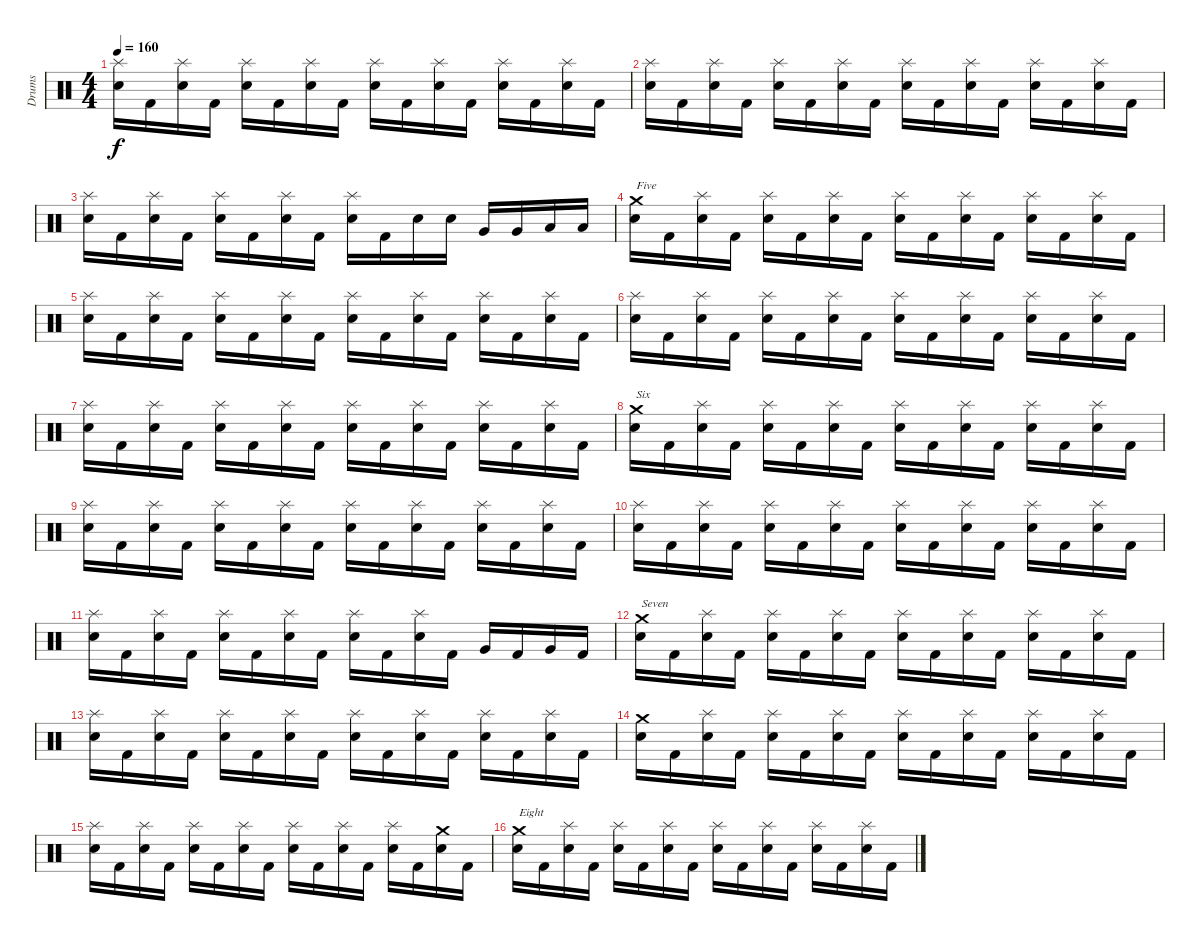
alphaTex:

\track ("Drums" "Drums") {instrument percussion}
\staff {score}
\articulation defaults
\ts (4 4)
\tempo 160
\clef neutral
\ks c
("Splash (hit)" "Snare (hit) 2").16{dy f} "Kick (hit) 2".16 ("Splash (hit)" "Snare (hit) 2").16 "Kick (hit) 2".16 ("Splash (hit)" "Snare (hit) 2").16 "Kick (hit) 2".16 ("Splash (hit)" "Snare (hit) 2").16 "Kick (hit) 2".16 ("Splash (hit)" "Snare (hit) 2").16 "Kick (hit) 2".16 ("Splash (hit)" "Snare (hit) 2").16 "Kick (hit) 2".16 ("Splash (hit)" "Snare (hit) 2").16 "Kick (hit) 2".16 ("Splash (hit)" "Snare (hit) 2").16 "Kick (hit) 2".16 |
("Splash (hit)" "Snare (hit) 2").16 "Kick (hit) 2".16 ("Splash (hit)" "Snare (hit) 2").16 "Kick (hit) 2".16 ("Splash (hit)" "Snare (hit) 2").16 "Kick (hit) 2".16 ("Splash (hit)" "Snare (hit) 2").16 "Kick (hit) 2".16 ("Splash (hit)" "Snare (hit) 2").16 "Kick (hit) 2".16 ("Splash (hit)" "Snare (hit) 2").16 "Kick (hit) 2".16 ("Splash (hit)" "Snare (hit) 2").16 "Kick (hit) 2".16 ("Splash (hit)" "Snare (hit) 2").16 "Kick (hit) 2".16 |
("Splash (hit)" "Snare (hit) 2").16 "Kick (hit) 2".16 ("Splash (hit)" "Snare (hit) 2").16 "Kick (hit) 2".16 ("Splash (hit)" "Snare (hit) 2").16 "Kick (hit) 2".16 ("Splash (hit)" "Snare (hit) 2").16 "Kick (hit) 2".16 ("Splash (hit)" "Snare (hit) 2").16 "Kick (hit) 2".16 "Snare (hit) 2".16 "Snare (hit) 2".16 "Very Low Tom (hit)".16 "Very Low Tom (hit)".16 "Low Floor Tom (hit)".16 "Low Floor Tom (hit)".16 |
("Crash medium (hit)" "Snare (hit) 2").16{txt "Five"} "Kick (hit) 2".16 ("Splash (hit)" "Snare (hit) 2").16 "Kick (hit) 2".16 ("Splash (hit)" "Snare (hit) 2").16 "Kick (hit) 2".16 ("Splash (hit)" "Snare (hit) 2").16 "Kick (hit) 2".16 ("Splash (hit)" "Snare (hit) 2").16 "Kick (hit) 2".16 ("Splash (hit)" "Snare (hit) 2").16 "Kick (hit) 2".16 ("Splash (hit)" "Snare (hit) 2").16 "Kick (hit) 2".16 ("Splash (hit)" "Snare (hit) 2").16 "Kick (hit) 2".16 |
("Splash (hit)" "Snare (hit) 2").16 "Kick (hit) 2".16 ("Splash (hit)" "Snare (hit) 2").16 "Kick (hit) 2".16 ("Splash (hit)" "Snare (hit) 2").16 "Kick (hit) 2".16 ("Splash (hit)" "Snare (hit) 2").16 "Kick (hit) 2".16 ("Splash (hit)" "Snare (hit) 2").16 "Kick (hit) 2".16 ("Splash (hit)" "Snare (hit) 2").16 "Kick (hit) 2".16 ("Splash (hit)" "Snare (hit) 2").16 "Kick (hit) 2".16 ("Splash (hit)" "Snare (hit) 2").16 "Kick (hit) 2".16 |
("Splash (hit)" "Snare (hit) 2").16 "Kick (hit) 2".16 ("Splash (hit)" "Snare (hit) 2").16 "Kick (hit) 2".16 ("Splash (hit)" "Snare (hit) 2").16 "Kick (hit) 2".16 ("Splash (hit)" "Snare (hit) 2").16 "Kick (hit) 2".16 ("Splash (hit)" "Snare (hit) 2").16 "Kick (hit) 2".16 ("Splash (hit)" "Snare (hit) 2").16 "Kick (hit) 2".16 ("Splash (hit)" "Snare (hit) 2").16 "Kick (hit) 2".16 ("Splash (hit)" "Snare (hit) 2").16 "Kick (hit) 2".16 |
("Splash (hit)" "Snare (hit) 2").16 "Kick (hit) 2".16 ("Splash (hit)" "Snare (hit) 2").16 "Kick (hit) 2".16 ("Splash (hit)" "Snare (hit) 2").16 "Kick (hit) 2".16 ("Splash (hit)" "Snare (hit) 2").16 "Kick (hit) 2".16 ("Splash (hit)" "Snare (hit) 2").16 "Kick (hit) 2".16 ("Splash (hit)" "Snare (hit) 2").16 "Kick (hit) 2".16 ("Splash (hit)" "Snare (hit) 2").16 "Kick (hit) 2".16 ("Splash (hit)" "Snare (hit) 2").16 "Kick (hit) 2".16 |
("Crash medium (hit)" "Snare (hit) 2").16{txt "Six"} "Kick (hit) 2".16 ("Splash (hit)" "Snare (hit) 2").16 "Kick (hit) 2".16 ("Splash (hit)" "Snare (hit) 2").16 "Kick (hit) 2".16 ("Splash (hit)" "Snare (hit) 2").16 "Kick (hit) 2".16 ("Splash (hit)" "Snare (hit) 2").16 "Kick (hit) 2".16 ("Splash (hit)" "Snare (hit) 2").16 "Kick (hit) 2".16 ("Splash (hit)" "Snare (hit) 2").16 "Kick (hit) 2".16 ("Splash (hit)" "Snare (hit) 2").16 "Kick (hit) 2".16 |
("Splash (hit)" "Snare (hit) 2").16 "Kick (hit) 2".16 ("Splash (hit)" "Snare (hit) 2").16 "Kick (hit) 2".16 ("Splash (hit)" "Snare (hit) 2").16 "Kick (hit) 2".16 ("Splash (hit)" "Snare (hit) 2").16 "Kick (hit) 2".16 ("Splash (hit)" "Snare (hit) 2").16 "Kick (hit) 2".16 ("Splash (hit)" "Snare (hit) 2").16 "Kick (hit) 2".16 ("Splash (hit)" "Snare (hit) 2").16 "Kick (hit) 2".16 ("Splash (hit)" "Snare (hit) 2").16 "Kick (hit) 2".16 |
("Splash (hit)" "Snare (hit) 2").16 "Kick (hit) 2".16 ("Splash (hit)" "Snare (hit) 2").16 "Kick (hit) 2".16 ("Splash (hit)" "Snare (hit) 2").16 "Kick (hit) 2".16 ("Splash (hit)" "Snare (hit) 2").16 "Kick (hit) 2".16 ("Splash (hit)" "Snare (hit) 2").16 "Kick (hit) 2".16 ("Splash (hit)" "Snare (hit) 2").16 "Kick (hit) 2".16 ("Splash (hit)" "Snare (hit) 2").16 "Kick (hit) 2".16 ("Splash (hit)" "Snare (hit) 2").16 "Kick (hit) 2".16 |
("Splash (hit)" "Snare (hit) 2").16 "Kick (hit) 2".16 ("Splash (hit)" "Snare (hit) 2").16 "Kick (hit) 2".16 ("Splash (hit)" "Snare (hit) 2").16 "Kick (hit) 2".16 ("Splash (hit)" "Snare (hit) 2").16 "Kick (hit) 2".16 ("Splash (hit)" "Snare (hit) 2").16 "Kick (hit) 2".16 ("Splash (hit)" "Snare (hit) 2").16 "Kick (hit) 2".16 "Very Low Tom (hit)".16 "Kick (hit) 2".16 "Very Low Tom (hit)".16 "Kick (hit) 2".16 |
("Crash medium (hit)" "Snare (hit) 2").16{txt "Seven"} "Kick (hit) 2".16 ("Splash (hit)" "Snare (hit) 2").16 "Kick (hit) 2".16 ("Splash (hit)" "Snare (hit) 2").16 "Kick (hit) 2".16 ("Splash (hit)" "Snare (hit) 2").16 "Kick (hit) 2".16 ("Splash (hit)" "Snare (hit) 2").16 "Kick (hit) 2".16 ("Splash (hit)" "Snare (hit) 2").16 "Kick (hit) 2".16 ("Splash (hit)" "Snare (hit) 2").16 "Kick (hit) 2".16 ("Splash (hit)" "Snare (hit) 2").16 "Kick (hit) 2".16 |
("Splash (hit)" "Snare (hit) 2").16 "Kick (hit) 2".16 ("Splash (hit)" "Snare (hit) 2").16 "Kick (hit) 2".16 ("Splash (hit)" "Snare (hit) 2").16 "Kick (hit) 2".16 ("Splash (hit)" "Snare (hit) 2").16 "Kick (hit) 2".16 ("Splash (hit)" "Snare (hit) 2").16 "Kick (hit) 2".16 ("Splash (hit)" "Snare (hit) 2").16 "Kick (hit) 2".16 ("Splash (hit)" "Snare (hit) 2").16 "Kick (hit) 2".16 ("Splash (hit)" "Snare (hit) 2").16 "Kick (hit) 2".16 |
("Crash medium (hit)" "Snare (hit) 2").16 "Kick (hit) 2".16 ("Splash (hit)" "Snare (hit) 2").16 "Kick (hit) 2".16 ("Splash (hit)" "Snare (hit) 2").16 "Kick (hit) 2".16 ("Splash (hit)" "Snare (hit) 2").16 "Kick (hit) 2".16 ("Splash (hit)" "Snare (hit) 2").16 "Kick (hit) 2".16 ("Splash (hit)" "Snare (hit) 2").16 "Kick (hit) 2".16 ("Splash (hit)" "Snare (hit) 2").16 "Kick (hit) 2".16 ("Splash (hit)" "Snare (hit) 2").16 "Kick (hit) 2".16 |
("Splash (hit)" "Snare (hit) 2").16 "Kick (hit) 2".16 ("Splash (hit)" "Snare (hit) 2").16 "Kick (hit) 2".16 ("Splash (hit)" "Snare (hit) 2").16 "Kick (hit) 2".16 ("Splash (hit)" "Snare (hit) 2").16 "Kick (hit) 2".16 ("Splash (hit)" "Snare (hit) 2").16 "Kick (hit) 2".16 ("Splash (hit)" "Snare (hit) 2").16 "Kick (hit) 2".16 ("Splash (hit)" "Snare (hit) 2").16 "Kick (hit) 2".16 ("Crash medium (hit)" "Snare (hit) 2").16 "Kick (hit) 2".16 |
("Crash medium (hit)" "Snare (hit) 2").16{txt "Eight"} "Kick (hit) 2".16 ("Splash (hit)" "Snare (hit) 2").16 "Kick (hit) 2".16 ("Splash (hit)" "Snare (hit) 2").16 "Kick (hit) 2".16 ("Splash (hit)" "Snare (hit) 2").16 "Kick (hit) 2".16 ("Splash (hit)" "Snare (hit) 2").16 "Kick (hit) 2".16 ("Splash (hit)" "Snare (hit) 2").16 "Kick (hit) 2".16 ("Splash (hit)" "Snare (hit) 2").16 "Kick (hit) 2".16 ("Splash (hit)" "Snare (hit) 2").16 "Kick (hit) 2".16
